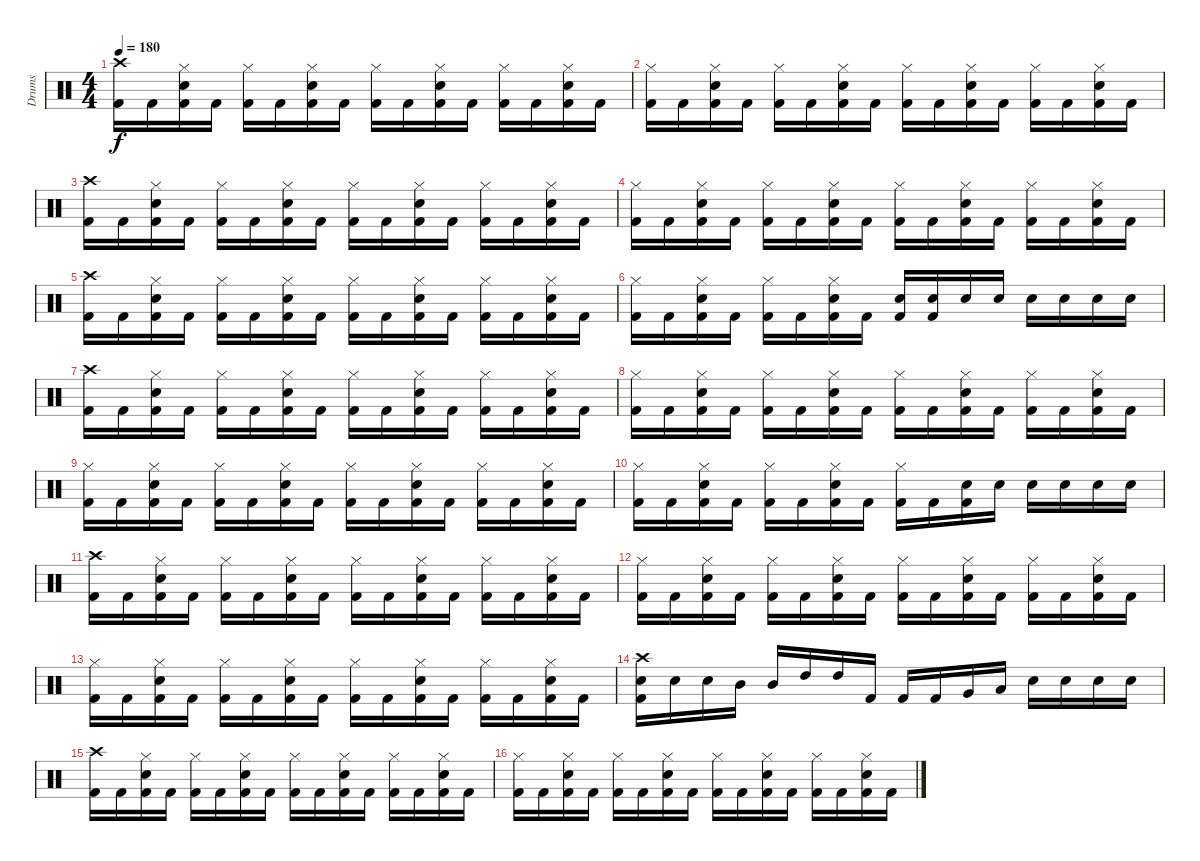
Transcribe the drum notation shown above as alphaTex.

\track ("Drums" "Drums") {instrument percussion}
\staff {score}
\articulation defaults
\ts (4 4)
\tempo 180
\clef neutral
\ks c
("Crash high (hit)" "Kick (hit) 2").16{dy f} "Kick (hit) 2".16 ("Hi-Hat (closed)" "Electric Snare (hit)" "Kick (hit) 2").16 "Kick (hit) 2".16 ("Hi-Hat (closed)" "Kick (hit) 2").16 "Kick (hit) 2".16 ("Hi-Hat (closed)" "Electric Snare (hit)" "Kick (hit) 2").16 "Kick (hit) 2".16 ("Hi-Hat (closed)" "Kick (hit) 2").16 "Kick (hit) 2".16 ("Hi-Hat (closed)" "Electric Snare (hit)" "Kick (hit) 2").16 "Kick (hit) 2".16 ("Hi-Hat (closed)" "Kick (hit) 2").16 "Kick (hit) 2".16 ("Hi-Hat (closed)" "Electric Snare (hit)" "Kick (hit) 2").16 "Kick (hit) 2".16 |
("Hi-Hat (closed)" "Kick (hit) 2").16 "Kick (hit) 2".16 ("Hi-Hat (closed)" "Electric Snare (hit)" "Kick (hit) 2").16 "Kick (hit) 2".16 ("Hi-Hat (closed)" "Kick (hit) 2").16 "Kick (hit) 2".16 ("Hi-Hat (closed)" "Electric Snare (hit)" "Kick (hit) 2").16 "Kick (hit) 2".16 ("Hi-Hat (closed)" "Kick (hit) 2").16 "Kick (hit) 2".16 ("Hi-Hat (closed)" "Electric Snare (hit)" "Kick (hit) 2").16 "Kick (hit) 2".16 ("Hi-Hat (closed)" "Kick (hit) 2").16 "Kick (hit) 2".16 ("Hi-Hat (closed)" "Electric Snare (hit)" "Kick (hit) 2").16 "Kick (hit) 2".16 |
("Crash high (hit)" "Kick (hit) 2").16 "Kick (hit) 2".16 ("Hi-Hat (closed)" "Electric Snare (hit)" "Kick (hit) 2").16 "Kick (hit) 2".16 ("Hi-Hat (closed)" "Kick (hit) 2").16 "Kick (hit) 2".16 ("Hi-Hat (closed)" "Electric Snare (hit)" "Kick (hit) 2").16 "Kick (hit) 2".16 ("Hi-Hat (closed)" "Kick (hit) 2").16 "Kick (hit) 2".16 ("Hi-Hat (closed)" "Electric Snare (hit)" "Kick (hit) 2").16 "Kick (hit) 2".16 ("Hi-Hat (closed)" "Kick (hit) 2").16 "Kick (hit) 2".16 ("Hi-Hat (closed)" "Electric Snare (hit)" "Kick (hit) 2").16 "Kick (hit) 2".16 |
("Hi-Hat (closed)" "Kick (hit) 2").16 "Kick (hit) 2".16 ("Hi-Hat (closed)" "Electric Snare (hit)" "Kick (hit) 2").16 "Kick (hit) 2".16 ("Hi-Hat (closed)" "Kick (hit) 2").16 "Kick (hit) 2".16 ("Hi-Hat (closed)" "Electric Snare (hit)" "Kick (hit) 2").16 "Kick (hit) 2".16 ("Hi-Hat (closed)" "Kick (hit) 2").16 "Kick (hit) 2".16 ("Hi-Hat (closed)" "Electric Snare (hit)" "Kick (hit) 2").16 "Kick (hit) 2".16 ("Hi-Hat (closed)" "Kick (hit) 2").16 "Kick (hit) 2".16 ("Hi-Hat (closed)" "Electric Snare (hit)" "Kick (hit) 2").16 "Kick (hit) 2".16 |
("Crash high (hit)" "Kick (hit) 2").16 "Kick (hit) 2".16 ("Hi-Hat (closed)" "Electric Snare (hit)" "Kick (hit) 2").16 "Kick (hit) 2".16 ("Hi-Hat (closed)" "Kick (hit) 2").16 "Kick (hit) 2".16 ("Hi-Hat (closed)" "Electric Snare (hit)" "Kick (hit) 2").16 "Kick (hit) 2".16 ("Hi-Hat (closed)" "Kick (hit) 2").16 "Kick (hit) 2".16 ("Hi-Hat (closed)" "Electric Snare (hit)" "Kick (hit) 2").16 "Kick (hit) 2".16 ("Hi-Hat (closed)" "Kick (hit) 2").16 "Kick (hit) 2".16 ("Hi-Hat (closed)" "Electric Snare (hit)" "Kick (hit) 2").16 "Kick (hit) 2".16 |
("Hi-Hat (closed)" "Kick (hit) 2").16 "Kick (hit) 2".16 ("Hi-Hat (closed)" "Electric Snare (hit)" "Kick (hit) 2").16 "Kick (hit) 2".16 ("Hi-Hat (closed)" "Kick (hit) 2").16 "Kick (hit) 2".16 ("Hi-Hat (closed)" "Electric Snare (hit)" "Kick (hit) 2").16 "Kick (hit) 2".16 ("Electric Snare (hit)" "Kick (hit) 2").16 ("Electric Snare (hit)" "Kick (hit) 2").16 "Electric Snare (hit)".16 "Electric Snare (hit)".16 "Electric Snare (hit)".16 "Electric Snare (hit)".16 "Electric Snare (hit)".16 "Electric Snare (hit)".16 |
("Crash high (hit)" "Kick (hit) 2").16 "Kick (hit) 2".16 ("Hi-Hat (closed)" "Electric Snare (hit)" "Kick (hit) 2").16 "Kick (hit) 2".16 ("Hi-Hat (closed)" "Kick (hit) 2").16 "Kick (hit) 2".16 ("Hi-Hat (closed)" "Electric Snare (hit)" "Kick (hit) 2").16 "Kick (hit) 2".16 ("Hi-Hat (closed)" "Kick (hit) 2").16 "Kick (hit) 2".16 ("Hi-Hat (closed)" "Electric Snare (hit)" "Kick (hit) 2").16 "Kick (hit) 2".16 ("Hi-Hat (closed)" "Kick (hit) 2").16 "Kick (hit) 2".16 ("Hi-Hat (closed)" "Electric Snare (hit)" "Kick (hit) 2").16 "Kick (hit) 2".16 |
("Hi-Hat (closed)" "Kick (hit) 2").16 "Kick (hit) 2".16 ("Hi-Hat (closed)" "Electric Snare (hit)" "Kick (hit) 2").16 "Kick (hit) 2".16 ("Hi-Hat (closed)" "Kick (hit) 2").16 "Kick (hit) 2".16 ("Hi-Hat (closed)" "Electric Snare (hit)" "Kick (hit) 2").16 "Kick (hit) 2".16 ("Hi-Hat (closed)" "Kick (hit) 2").16 "Kick (hit) 2".16 ("Hi-Hat (closed)" "Electric Snare (hit)" "Kick (hit) 2").16 "Kick (hit) 2".16 ("Hi-Hat (closed)" "Kick (hit) 2").16 "Kick (hit) 2".16 ("Hi-Hat (closed)" "Electric Snare (hit)" "Kick (hit) 2").16 "Kick (hit) 2".16 |
("Hi-Hat (closed)" "Kick (hit) 2").16 "Kick (hit) 2".16 ("Hi-Hat (closed)" "Electric Snare (hit)" "Kick (hit) 2").16 "Kick (hit) 2".16 ("Hi-Hat (closed)" "Kick (hit) 2").16 "Kick (hit) 2".16 ("Hi-Hat (closed)" "Electric Snare (hit)" "Kick (hit) 2").16 "Kick (hit) 2".16 ("Hi-Hat (closed)" "Kick (hit) 2").16 "Kick (hit) 2".16 ("Hi-Hat (closed)" "Electric Snare (hit)" "Kick (hit) 2").16 "Kick (hit) 2".16 ("Hi-Hat (closed)" "Kick (hit) 2").16 "Kick (hit) 2".16 ("Hi-Hat (closed)" "Electric Snare (hit)" "Kick (hit) 2").16 "Kick (hit) 2".16 |
("Hi-Hat (closed)" "Kick (hit) 2").16 "Kick (hit) 2".16 ("Hi-Hat (closed)" "Electric Snare (hit)" "Kick (hit) 2").16 "Kick (hit) 2".16 ("Hi-Hat (closed)" "Kick (hit) 2").16 "Kick (hit) 2".16 ("Hi-Hat (closed)" "Electric Snare (hit)" "Kick (hit) 2").16 "Kick (hit) 2".16 ("Hi-Hat (closed)" "Kick (hit) 2").16 "Kick (hit) 2".16 ("Electric Snare (hit)" "Kick (hit) 2").16 "Electric Snare (hit)".16 "Electric Snare (hit)".16 "Electric Snare (hit)".16 "Electric Snare (hit)".16 "Electric Snare (hit)".16 |
("Crash high (hit)" "Kick (hit) 2").16 "Kick (hit) 2".16 ("Hi-Hat (closed)" "Electric Snare (hit)" "Kick (hit) 2").16 "Kick (hit) 2".16 ("Hi-Hat (closed)" "Kick (hit) 2").16 "Kick (hit) 2".16 ("Hi-Hat (closed)" "Electric Snare (hit)" "Kick (hit) 2").16 "Kick (hit) 2".16 ("Hi-Hat (closed)" "Kick (hit) 2").16 "Kick (hit) 2".16 ("Hi-Hat (closed)" "Electric Snare (hit)" "Kick (hit) 2").16 "Kick (hit) 2".16 ("Hi-Hat (closed)" "Kick (hit) 2").16 "Kick (hit) 2".16 ("Hi-Hat (closed)" "Electric Snare (hit)" "Kick (hit) 2").16 "Kick (hit) 2".16 |
("Hi-Hat (closed)" "Kick (hit) 2").16 "Kick (hit) 2".16 ("Hi-Hat (closed)" "Electric Snare (hit)" "Kick (hit) 2").16 "Kick (hit) 2".16 ("Hi-Hat (closed)" "Kick (hit) 2").16 "Kick (hit) 2".16 ("Hi-Hat (closed)" "Electric Snare (hit)" "Kick (hit) 2").16 "Kick (hit) 2".16 ("Hi-Hat (closed)" "Kick (hit) 2").16 "Kick (hit) 2".16 ("Hi-Hat (closed)" "Electric Snare (hit)" "Kick (hit) 2").16 "Kick (hit) 2".16 ("Hi-Hat (closed)" "Kick (hit) 2").16 "Kick (hit) 2".16 ("Hi-Hat (closed)" "Electric Snare (hit)" "Kick (hit) 2").16 "Kick (hit) 2".16 |
("Hi-Hat (closed)" "Kick (hit) 2").16 "Kick (hit) 2".16 ("Hi-Hat (closed)" "Electric Snare (hit)" "Kick (hit) 2").16 "Kick (hit) 2".16 ("Hi-Hat (closed)" "Kick (hit) 2").16 "Kick (hit) 2".16 ("Hi-Hat (closed)" "Electric Snare (hit)" "Kick (hit) 2").16 "Kick (hit) 2".16 ("Hi-Hat (closed)" "Kick (hit) 2").16 "Kick (hit) 2".16 ("Hi-Hat (closed)" "Electric Snare (hit)" "Kick (hit) 2").16 "Kick (hit) 2".16 ("Hi-Hat (closed)" "Kick (hit) 2").16 "Kick (hit) 2".16 ("Hi-Hat (closed)" "Electric Snare (hit)" "Kick (hit) 2").16 "Kick (hit) 2".16 |
("Crash high (hit)" "Electric Snare (hit)" "Kick (hit) 2").16 "Electric Snare (hit)".16 "Electric Snare (hit)".16 "Mid Tom (hit)".16 "Mid Tom (hit)".16 "High Tom (hit)".16 "High Tom (hit)".16 "Kick (hit) 2".16 "Kick (hit) 2".16 "Kick (hit) 2".16 "Very Low Tom (hit)".16 "Low Floor Tom (hit)".16 "Electric Snare (hit)".16 "Electric Snare (hit)".16 "Electric Snare (hit)".16 "Electric Snare (hit)".16 |
("Crash high (hit)" "Kick (hit) 2").16 "Kick (hit) 2".16 ("Hi-Hat (closed)" "Electric Snare (hit)" "Kick (hit) 2").16 "Kick (hit) 2".16 ("Hi-Hat (closed)" "Kick (hit) 2").16 "Kick (hit) 2".16 ("Hi-Hat (closed)" "Electric Snare (hit)" "Kick (hit) 2").16 "Kick (hit) 2".16 ("Hi-Hat (closed)" "Kick (hit) 2").16 "Kick (hit) 2".16 ("Hi-Hat (closed)" "Electric Snare (hit)" "Kick (hit) 2").16 "Kick (hit) 2".16 ("Hi-Hat (closed)" "Kick (hit) 2").16 "Kick (hit) 2".16 ("Hi-Hat (closed)" "Electric Snare (hit)" "Kick (hit) 2").16 "Kick (hit) 2".16 |
("Hi-Hat (closed)" "Kick (hit) 2").16 "Kick (hit) 2".16 ("Hi-Hat (closed)" "Electric Snare (hit)" "Kick (hit) 2").16 "Kick (hit) 2".16 ("Hi-Hat (closed)" "Kick (hit) 2").16 "Kick (hit) 2".16 ("Hi-Hat (closed)" "Electric Snare (hit)" "Kick (hit) 2").16 "Kick (hit) 2".16 ("Hi-Hat (closed)" "Kick (hit) 2").16 "Kick (hit) 2".16 ("Hi-Hat (closed)" "Electric Snare (hit)" "Kick (hit) 2").16 "Kick (hit) 2".16 ("Hi-Hat (closed)" "Kick (hit) 2").16 "Kick (hit) 2".16 ("Hi-Hat (closed)" "Electric Snare (hit)" "Kick (hit) 2").16 "Kick (hit) 2".16
